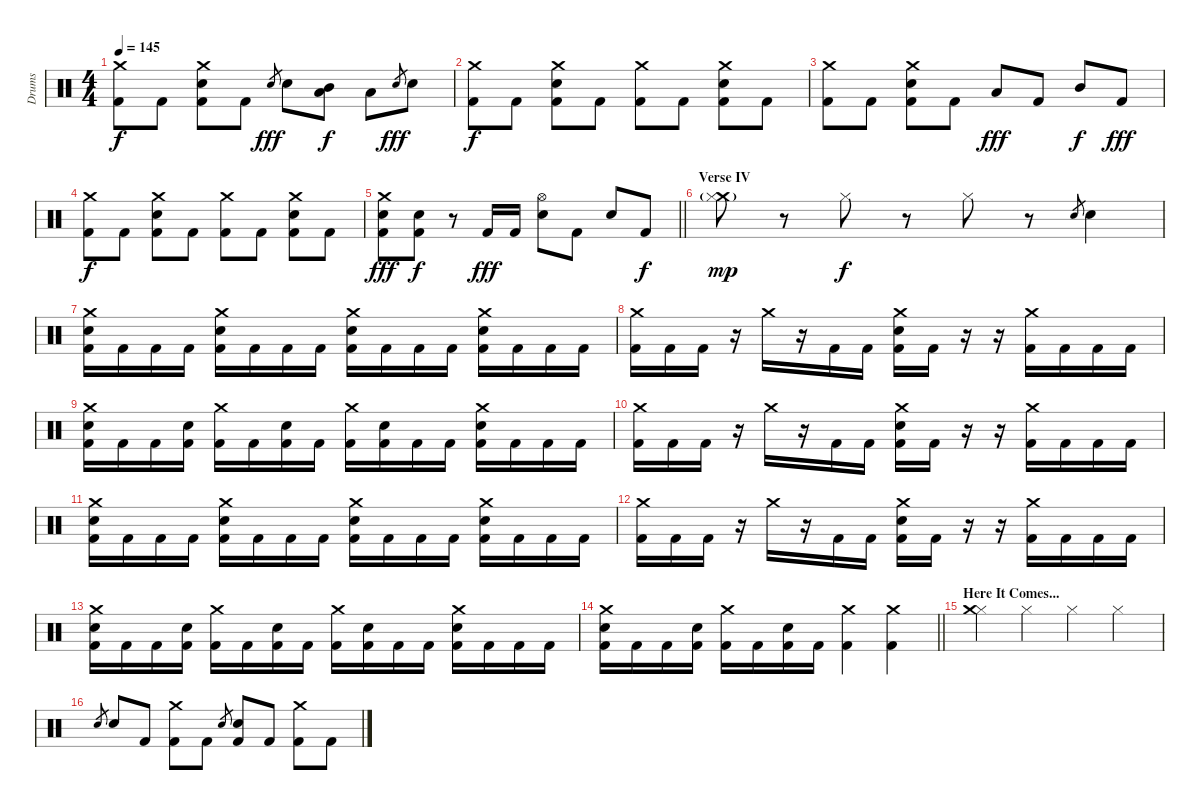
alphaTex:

\track ("Drums" "Drums") {instrument percussion}
\staff {score}
\articulation defaults
\ts (4 4)
\tempo 145
\clef neutral
\ks c
("Crash medium (hit)" "Kick (hit) 2").8{dy f} "Kick (hit) 2".8 ("Crash medium (hit)" "Electric Snare (hit)" "Kick (hit) 2").8 "Kick (hit) 2".8 "Electric Snare (hit)".8{gr dy fff} "Electric Snare (hit)".8 ("Mid Tom (hit)" "Low Tom (hit)").8{dy f} "Low Tom (hit)".8 "Electric Snare (hit)".8{gr dy fff} "Electric Snare (hit)".8 |
("Crash medium (hit)" "Kick (hit) 2").8{dy f} "Kick (hit) 2".8 ("Crash medium (hit)" "Electric Snare (hit)" "Kick (hit) 2").8 "Kick (hit) 2".8 ("Crash medium (hit)" "Kick (hit) 2").8 "Kick (hit) 2".8 ("Crash medium (hit)" "Electric Snare (hit)" "Kick (hit) 2").8 "Kick (hit) 2".8 |
("Crash medium (hit)" "Kick (hit) 2").8 "Kick (hit) 2".8 ("Crash medium (hit)" "Electric Snare (hit)" "Kick (hit) 2").8 "Kick (hit) 2".8 "Low Tom (hit)".8{dy fff} "Kick (hit) 2".8 "Mid Tom (hit)".8{dy f} "Kick (hit) 2".8{dy fff} |
("Crash medium (hit)" "Kick (hit) 2").8{dy f} "Kick (hit) 2".8 ("Crash medium (hit)" "Electric Snare (hit)" "Kick (hit) 2").8 "Kick (hit) 2".8 ("Crash medium (hit)" "Kick (hit) 2").8 "Kick (hit) 2".8 ("Crash medium (hit)" "Electric Snare (hit)" "Kick (hit) 2").8 "Kick (hit) 2".8 |
\barLineRight lightlight
("Crash medium (hit)" "Electric Snare (hit)" "Kick (hit) 2").8{dy fff} ("Electric Snare (hit)" "Kick (hit) 2").8{dy f} r.8 "Kick (hit) 2".16{dy fff} "Kick (hit) 2".16 ("Hi-Hat (open)" "Electric Snare (hit)").8 "Kick (hit) 2".8 "Electric Snare (hit)".8 "Kick (hit) 2".8{dy f} |
\section ("" "Verse IV")
("Crash medium (hit)"{g} "Hi-Hat (closed)").8{dy mp} r.8 "Hi-Hat (closed)".8{dy f} r.8 "Hi-Hat (closed)".8 r.8 "Electric Snare (hit)".8{gr} "Electric Snare (hit)".4 |
("Crash medium (hit)" "Snare (hit) 2" "Kick (hit) 2").16 "Kick (hit) 2".16 "Kick (hit) 2".16 "Kick (hit) 2".16 ("Crash medium (hit)" "Snare (hit) 2" "Kick (hit) 2").16 "Kick (hit) 2".16 "Kick (hit) 2".16 "Kick (hit) 2".16 ("Crash medium (hit)" "Snare (hit) 2" "Kick (hit) 2").16 "Kick (hit) 2".16 "Kick (hit) 2".16 "Kick (hit) 2".16 ("Crash medium (hit)" "Snare (hit) 2" "Kick (hit) 2").16 "Kick (hit) 2".16 "Kick (hit) 2".16 "Kick (hit) 2".16 |
("Crash medium (hit)" "Kick (hit) 2").16 "Kick (hit) 2".16 "Kick (hit) 2".16 r.16 "Crash medium (hit)".16 r.16 "Kick (hit) 2".16 "Kick (hit) 2".16 ("Crash medium (hit)" "Snare (hit) 2" "Kick (hit) 2").16 "Kick (hit) 2".16 r.16 r.16 ("Crash medium (hit)" "Kick (hit) 2").16 "Kick (hit) 2".16 "Kick (hit) 2".16 "Kick (hit) 2".16 |
("Crash medium (hit)" "Snare (hit) 2" "Kick (hit) 2").16 "Kick (hit) 2".16 "Kick (hit) 2".16 ("Snare (hit) 2" "Kick (hit) 2").16 ("Crash medium (hit)" "Kick (hit) 2").16 "Kick (hit) 2".16 ("Snare (hit) 2" "Kick (hit) 2").16 "Kick (hit) 2".16 ("Crash medium (hit)" "Kick (hit) 2").16 ("Snare (hit) 2" "Kick (hit) 2").16 "Kick (hit) 2".16 "Kick (hit) 2".16 ("Crash medium (hit)" "Snare (hit) 2" "Kick (hit) 2").16 "Kick (hit) 2".16 "Kick (hit) 2".16 "Kick (hit) 2".16 |
("Crash medium (hit)" "Kick (hit) 2").16 "Kick (hit) 2".16 "Kick (hit) 2".16 r.16 "Crash medium (hit)".16 r.16 "Kick (hit) 2".16 "Kick (hit) 2".16 ("Crash medium (hit)" "Snare (hit) 2" "Kick (hit) 2").16 "Kick (hit) 2".16 r.16 r.16 ("Crash medium (hit)" "Kick (hit) 2").16 "Kick (hit) 2".16 "Kick (hit) 2".16 "Kick (hit) 2".16 |
("Crash medium (hit)" "Snare (hit) 2" "Kick (hit) 2").16 "Kick (hit) 2".16 "Kick (hit) 2".16 "Kick (hit) 2".16 ("Crash medium (hit)" "Snare (hit) 2" "Kick (hit) 2").16 "Kick (hit) 2".16 "Kick (hit) 2".16 "Kick (hit) 2".16 ("Crash medium (hit)" "Snare (hit) 2" "Kick (hit) 2").16 "Kick (hit) 2".16 "Kick (hit) 2".16 "Kick (hit) 2".16 ("Crash medium (hit)" "Snare (hit) 2" "Kick (hit) 2").16 "Kick (hit) 2".16 "Kick (hit) 2".16 "Kick (hit) 2".16 |
("Crash medium (hit)" "Kick (hit) 2").16 "Kick (hit) 2".16 "Kick (hit) 2".16 r.16 "Crash medium (hit)".16 r.16 "Kick (hit) 2".16 "Kick (hit) 2".16 ("Crash medium (hit)" "Snare (hit) 2" "Kick (hit) 2").16 "Kick (hit) 2".16 r.16 r.16 ("Crash medium (hit)" "Kick (hit) 2").16 "Kick (hit) 2".16 "Kick (hit) 2".16 "Kick (hit) 2".16 |
("Crash medium (hit)" "Snare (hit) 2" "Kick (hit) 2").16 "Kick (hit) 2".16 "Kick (hit) 2".16 ("Snare (hit) 2" "Kick (hit) 2").16 ("Crash medium (hit)" "Kick (hit) 2").16 "Kick (hit) 2".16 ("Snare (hit) 2" "Kick (hit) 2").16 "Kick (hit) 2".16 ("Crash medium (hit)" "Kick (hit) 2").16 ("Snare (hit) 2" "Kick (hit) 2").16 "Kick (hit) 2".16 "Kick (hit) 2".16 ("Crash medium (hit)" "Snare (hit) 2" "Kick (hit) 2").16 "Kick (hit) 2".16 "Kick (hit) 2".16 "Kick (hit) 2".16 |
\barLineRight lightlight
("Crash medium (hit)" "Snare (hit) 2" "Kick (hit) 2").16 "Kick (hit) 2".16 "Kick (hit) 2".16 ("Snare (hit) 2" "Kick (hit) 2").16 ("Crash medium (hit)" "Kick (hit) 2").16 "Kick (hit) 2".16 ("Snare (hit) 2" "Kick (hit) 2").16 "Kick (hit) 2".16 ("Crash medium (hit)" "Kick (hit) 2").4 ("Crash medium (hit)" "Kick (hit) 2").4 |
\section ("" "Here It Comes...")
("Hi-Hat (closed)" "Crash medium (hit)").4 "Hi-Hat (closed)".4 "Hi-Hat (closed)".4 "Hi-Hat (closed)".4 |
"Electric Snare (hit)".8{gr} "Electric Snare (hit)".8 "Kick (hit) 2".8 ("Crash medium (hit)" "Kick (hit) 2").8 "Kick (hit) 2".8 "Electric Snare (hit)".8{gr} ("Electric Snare (hit)" "Kick (hit) 2").8 "Kick (hit) 2".8 ("Crash medium (hit)" "Kick (hit) 2").8 "Kick (hit) 2".8
